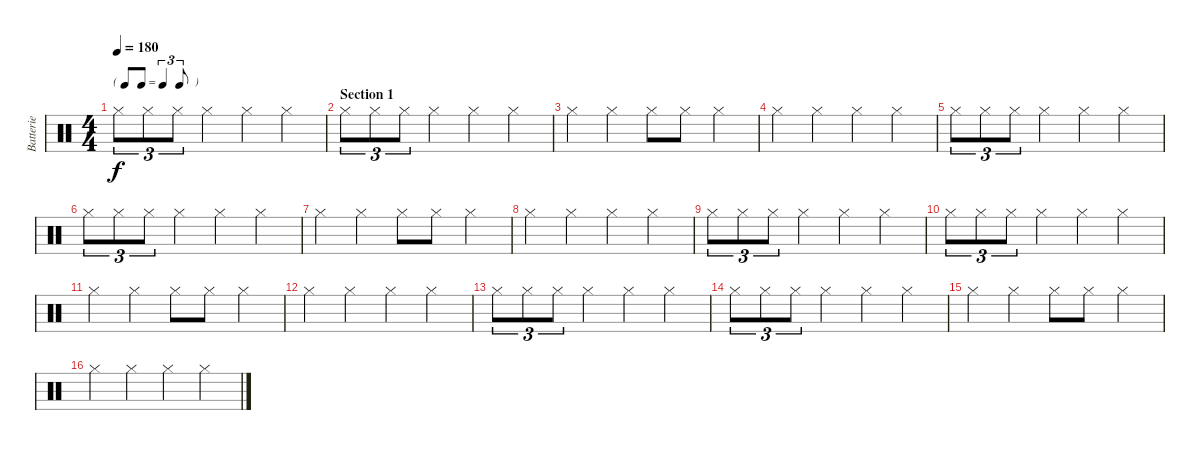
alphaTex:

\track ("Batterie" "Batterie") {instrument percussion}
\staff {score}
\articulation defaults
\ts (4 4)
\tf triplet8th
\tempo 180
\clef neutral
\ks c "Hi-Hat (closed)".8{tu (3 2) dy f} "Hi-Hat (closed)".8{tu (3 2)} "Hi-Hat (closed)".8{tu (3 2)} "Hi-Hat (closed)".4 "Hi-Hat (closed)".4 "Hi-Hat (closed)".4
|
\section ("" "Section 1")
"Hi-Hat (closed)".8{tu (3 2)} "Hi-Hat (closed)".8{tu (3 2)} "Hi-Hat (closed)".8{tu (3 2)} "Hi-Hat (closed)".4 "Hi-Hat (closed)".4 "Hi-Hat (closed)".4 |
"Hi-Hat (closed)".4 "Hi-Hat (closed)".4 "Hi-Hat (closed)".8 "Hi-Hat (closed)".8 "Hi-Hat (closed)".4 |
"Hi-Hat (closed)".4 "Hi-Hat (closed)".4 "Hi-Hat (closed)".4 "Hi-Hat (closed)".4 |
"Hi-Hat (closed)".8{tu (3 2)} "Hi-Hat (closed)".8{tu (3 2)} "Hi-Hat (closed)".8{tu (3 2)} "Hi-Hat (closed)".4 "Hi-Hat (closed)".4 "Hi-Hat (closed)".4 |
"Hi-Hat (closed)".8{tu (3 2)} "Hi-Hat (closed)".8{tu (3 2)} "Hi-Hat (closed)".8{tu (3 2)} "Hi-Hat (closed)".4 "Hi-Hat (closed)".4 "Hi-Hat (closed)".4 |
"Hi-Hat (closed)".4 "Hi-Hat (closed)".4 "Hi-Hat (closed)".8 "Hi-Hat (closed)".8 "Hi-Hat (closed)".4 |
"Hi-Hat (closed)".4 "Hi-Hat (closed)".4 "Hi-Hat (closed)".4 "Hi-Hat (closed)".4 |
"Hi-Hat (closed)".8{tu (3 2)} "Hi-Hat (closed)".8{tu (3 2)} "Hi-Hat (closed)".8{tu (3 2)} "Hi-Hat (closed)".4 "Hi-Hat (closed)".4 "Hi-Hat (closed)".4 |
"Hi-Hat (closed)".8{tu (3 2)} "Hi-Hat (closed)".8{tu (3 2)} "Hi-Hat (closed)".8{tu (3 2)} "Hi-Hat (closed)".4 "Hi-Hat (closed)".4 "Hi-Hat (closed)".4 |
"Hi-Hat (closed)".4 "Hi-Hat (closed)".4 "Hi-Hat (closed)".8 "Hi-Hat (closed)".8 "Hi-Hat (closed)".4 |
"Hi-Hat (closed)".4 "Hi-Hat (closed)".4 "Hi-Hat (closed)".4 "Hi-Hat (closed)".4 |
"Hi-Hat (closed)".8{tu (3 2)} "Hi-Hat (closed)".8{tu (3 2)} "Hi-Hat (closed)".8{tu (3 2)} "Hi-Hat (closed)".4 "Hi-Hat (closed)".4 "Hi-Hat (closed)".4 |
"Hi-Hat (closed)".8{tu (3 2)} "Hi-Hat (closed)".8{tu (3 2)} "Hi-Hat (closed)".8{tu (3 2)} "Hi-Hat (closed)".4 "Hi-Hat (closed)".4 "Hi-Hat (closed)".4 |
"Hi-Hat (closed)".4 "Hi-Hat (closed)".4 "Hi-Hat (closed)".8 "Hi-Hat (closed)".8 "Hi-Hat (closed)".4 |
"Hi-Hat (closed)".4 "Hi-Hat (closed)".4 "Hi-Hat (closed)".4 "Hi-Hat (closed)".4
